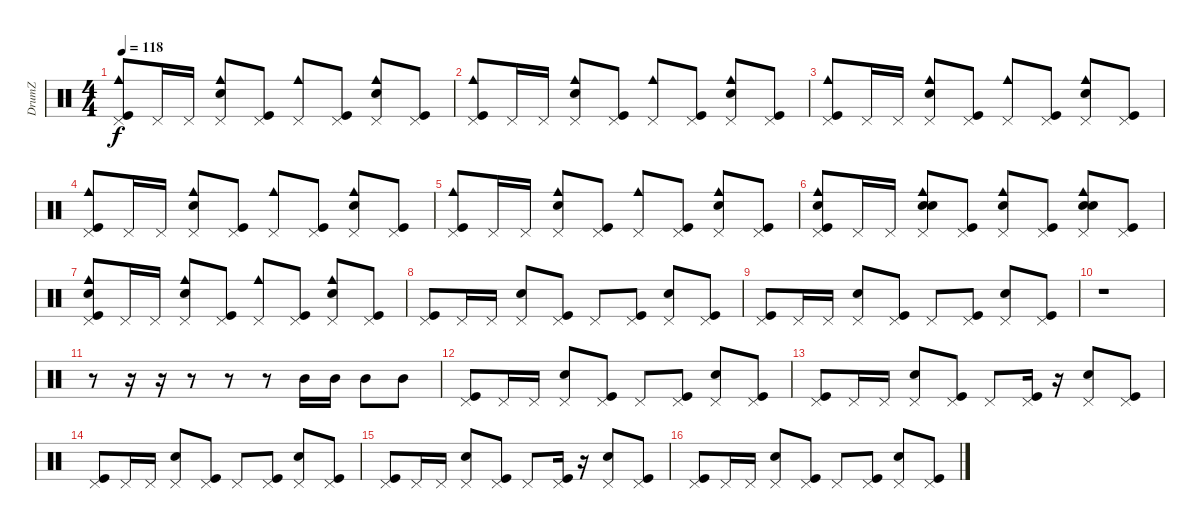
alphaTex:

\track ("DrumZ" "DrumZ") {instrument percussion}
\staff {score}
\articulation defaults
\ts (4 4)
\tempo 118
\clef neutral
\ks c
("Cowbell medium (hit)" "Pedal Hi-Hat (hit)" "Kick (hit)").8{dy f} "Pedal Hi-Hat (hit)".16 "Pedal Hi-Hat (hit)".16 ("Cowbell medium (hit)" "Pedal Hi-Hat (hit)" "Snare (hit) 2").8 ("Pedal Hi-Hat (hit)" "Kick (hit)").8 ("Cowbell medium (hit)" "Pedal Hi-Hat (hit)").8 ("Pedal Hi-Hat (hit)" "Kick (hit)").8 ("Cowbell medium (hit)" "Pedal Hi-Hat (hit)" "Snare (hit) 2").8 ("Pedal Hi-Hat (hit)" "Kick (hit)").8 |
("Cowbell medium (hit)" "Pedal Hi-Hat (hit)" "Kick (hit)").8 "Pedal Hi-Hat (hit)".16 "Pedal Hi-Hat (hit)".16 ("Cowbell medium (hit)" "Pedal Hi-Hat (hit)" "Snare (hit) 2").8 ("Pedal Hi-Hat (hit)" "Kick (hit)").8 ("Cowbell medium (hit)" "Pedal Hi-Hat (hit)").8 ("Pedal Hi-Hat (hit)" "Kick (hit)").8 ("Cowbell medium (hit)" "Pedal Hi-Hat (hit)" "Snare (hit) 2").8 ("Pedal Hi-Hat (hit)" "Kick (hit)").8 |
("Cowbell medium (hit)" "Pedal Hi-Hat (hit)" "Kick (hit)").8 "Pedal Hi-Hat (hit)".16 "Pedal Hi-Hat (hit)".16 ("Cowbell medium (hit)" "Pedal Hi-Hat (hit)" "Snare (hit) 2").8 ("Pedal Hi-Hat (hit)" "Kick (hit)").8 ("Cowbell medium (hit)" "Pedal Hi-Hat (hit)").8 ("Pedal Hi-Hat (hit)" "Kick (hit)").8 ("Cowbell medium (hit)" "Pedal Hi-Hat (hit)" "Snare (hit) 2").8 ("Pedal Hi-Hat (hit)" "Kick (hit)").8 |
("Cowbell medium (hit)" "Pedal Hi-Hat (hit)" "Kick (hit)").8 "Pedal Hi-Hat (hit)".16 "Pedal Hi-Hat (hit)".16 ("Cowbell medium (hit)" "Pedal Hi-Hat (hit)" "Snare (hit) 2").8 ("Pedal Hi-Hat (hit)" "Kick (hit)").8 ("Cowbell medium (hit)" "Pedal Hi-Hat (hit)").8 ("Pedal Hi-Hat (hit)" "Kick (hit)").8 ("Cowbell medium (hit)" "Pedal Hi-Hat (hit)" "Snare (hit) 2").8 ("Pedal Hi-Hat (hit)" "Kick (hit)").8 |
("Cowbell medium (hit)" "Pedal Hi-Hat (hit)" "Kick (hit)").8 "Pedal Hi-Hat (hit)".16 "Pedal Hi-Hat (hit)".16 ("Cowbell medium (hit)" "Pedal Hi-Hat (hit)" "Snare (hit) 2").8 ("Pedal Hi-Hat (hit)" "Kick (hit)").8 ("Cowbell medium (hit)" "Pedal Hi-Hat (hit)").8 ("Pedal Hi-Hat (hit)" "Kick (hit)").8 ("Cowbell medium (hit)" "Pedal Hi-Hat (hit)" "Snare (hit) 2").8 ("Pedal Hi-Hat (hit)" "Kick (hit)").8 |
("Hand Clap (hit)" "Cowbell medium (hit)" "Pedal Hi-Hat (hit)" "Kick (hit)").8 "Pedal Hi-Hat (hit)".16 "Pedal Hi-Hat (hit)".16 ("Hand Clap (hit)" "Cowbell medium (hit)" "Pedal Hi-Hat (hit)" "Snare (hit) 2").8 ("Pedal Hi-Hat (hit)" "Kick (hit)").8 ("Hand Clap (hit)" "Cowbell medium (hit)" "Pedal Hi-Hat (hit)").8 ("Pedal Hi-Hat (hit)" "Kick (hit)").8 ("Hand Clap (hit)" "Cowbell medium (hit)" "Pedal Hi-Hat (hit)" "Snare (hit) 2").8 ("Pedal Hi-Hat (hit)" "Kick (hit)").8 |
("Hand Clap (hit)" "Cowbell medium (hit)" "Pedal Hi-Hat (hit)" "Kick (hit)").8 "Pedal Hi-Hat (hit)".16 "Pedal Hi-Hat (hit)".16 ("Cowbell medium (hit)" "Pedal Hi-Hat (hit)" "Snare (hit) 2").8 ("Pedal Hi-Hat (hit)" "Kick (hit)").8 ("Cowbell medium (hit)" "Pedal Hi-Hat (hit)").8 ("Pedal Hi-Hat (hit)" "Kick (hit)").8 ("Cowbell medium (hit)" "Pedal Hi-Hat (hit)" "Snare (hit) 2").8 ("Pedal Hi-Hat (hit)" "Kick (hit)").8 |
("Pedal Hi-Hat (hit)" "Kick (hit)").8 "Pedal Hi-Hat (hit)".16 "Pedal Hi-Hat (hit)".16 ("Pedal Hi-Hat (hit)" "Snare (hit) 2").8 ("Pedal Hi-Hat (hit)" "Kick (hit)").8 "Pedal Hi-Hat (hit)".8 ("Pedal Hi-Hat (hit)" "Kick (hit)").8 ("Pedal Hi-Hat (hit)" "Snare (hit) 2").8 ("Pedal Hi-Hat (hit)" "Kick (hit)").8 |
("Pedal Hi-Hat (hit)" "Kick (hit)").8 "Pedal Hi-Hat (hit)".16 "Pedal Hi-Hat (hit)".16 ("Pedal Hi-Hat (hit)" "Snare (hit) 2").8 ("Pedal Hi-Hat (hit)" "Kick (hit)").8 "Pedal Hi-Hat (hit)".8 ("Pedal Hi-Hat (hit)" "Kick (hit)").8 ("Pedal Hi-Hat (hit)" "Snare (hit) 2").8 ("Pedal Hi-Hat (hit)" "Kick (hit)").8 |
r.1 |
r.8 r.16 r.16 r.8 r.8 r.8 "Mid Tom (hit)".16 "Mid Tom (hit)".16 "Mid Tom (hit)".8 "Mid Tom (hit)".8 |
("Pedal Hi-Hat (hit)" "Kick (hit)").8 "Pedal Hi-Hat (hit)".16 "Pedal Hi-Hat (hit)".16 ("Pedal Hi-Hat (hit)" "Snare (hit) 2").8 ("Pedal Hi-Hat (hit)" "Kick (hit)").8 "Pedal Hi-Hat (hit)".8 ("Pedal Hi-Hat (hit)" "Kick (hit)").8 ("Pedal Hi-Hat (hit)" "Snare (hit) 2").8 ("Pedal Hi-Hat (hit)" "Kick (hit)").8 |
("Pedal Hi-Hat (hit)" "Kick (hit)").8 "Pedal Hi-Hat (hit)".16 "Pedal Hi-Hat (hit)".16 ("Pedal Hi-Hat (hit)" "Snare (hit) 2").8 ("Pedal Hi-Hat (hit)" "Kick (hit)").8 "Pedal Hi-Hat (hit)".8 ("Pedal Hi-Hat (hit)" "Kick (hit)").16 r.16 ("Pedal Hi-Hat (hit)" "Snare (hit) 2").8 ("Pedal Hi-Hat (hit)" "Kick (hit)").8 |
("Pedal Hi-Hat (hit)" "Kick (hit)").8 "Pedal Hi-Hat (hit)".16 "Pedal Hi-Hat (hit)".16 ("Pedal Hi-Hat (hit)" "Snare (hit) 2").8 ("Pedal Hi-Hat (hit)" "Kick (hit)").8 "Pedal Hi-Hat (hit)".8 ("Pedal Hi-Hat (hit)" "Kick (hit)").8 ("Pedal Hi-Hat (hit)" "Snare (hit) 2").8 ("Pedal Hi-Hat (hit)" "Kick (hit)").8 |
("Pedal Hi-Hat (hit)" "Kick (hit)").8 "Pedal Hi-Hat (hit)".16 "Pedal Hi-Hat (hit)".16 ("Pedal Hi-Hat (hit)" "Snare (hit) 2").8 ("Pedal Hi-Hat (hit)" "Kick (hit)").8 "Pedal Hi-Hat (hit)".8 ("Pedal Hi-Hat (hit)" "Kick (hit)").16 r.16 ("Pedal Hi-Hat (hit)" "Snare (hit) 2").8 ("Pedal Hi-Hat (hit)" "Kick (hit)").8 |
("Pedal Hi-Hat (hit)" "Kick (hit)").8 "Pedal Hi-Hat (hit)".16 "Pedal Hi-Hat (hit)".16 ("Pedal Hi-Hat (hit)" "Snare (hit) 2").8 ("Pedal Hi-Hat (hit)" "Kick (hit)").8 "Pedal Hi-Hat (hit)".8 ("Pedal Hi-Hat (hit)" "Kick (hit)").8 ("Pedal Hi-Hat (hit)" "Snare (hit) 2").8 ("Pedal Hi-Hat (hit)" "Kick (hit)").8
